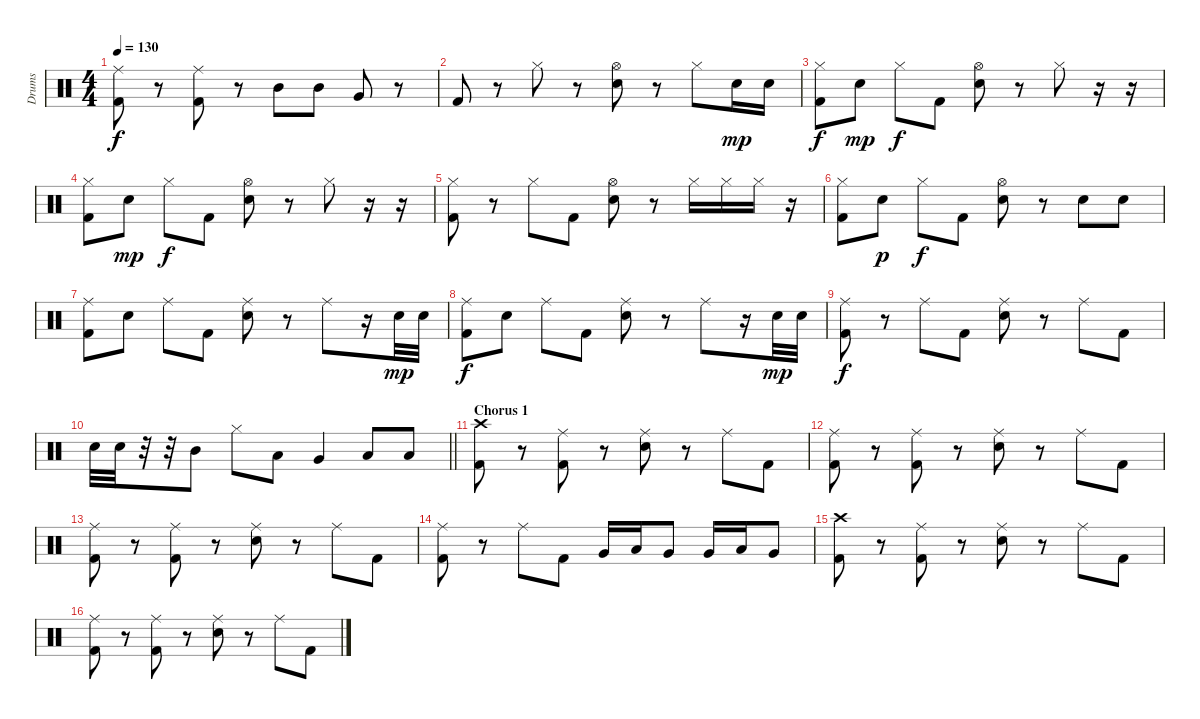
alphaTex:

\track ("Drums" "Drums") {instrument percussion}
\staff {score}
\articulation defaults
\ts (4 4)
\tempo 130
\clef neutral
\ks c
("Ride (middle)" "Kick (hit) 2").8{dy f} r.8 ("Ride (middle)" "Kick (hit) 2").8 r.8 "Mid Tom (hit)".8 "Mid Tom (hit)".8 "Very Low Tom (hit)".8 r.8 |
"Kick (hit) 2".8 r.8 "Hi-Hat (closed)".8 r.8 ("Hi-Hat (open)" "Snare (hit) 2").8 r.8 "Hi-Hat (closed)".8 "Snare (hit) 2".16{dy mp} "Snare (hit) 2".16 |
("Hi-Hat (closed)" "Kick (hit) 2").8{dy f} "Snare (hit) 2".8{dy mp} "Hi-Hat (closed)".8{dy f} "Kick (hit) 2".8 ("Hi-Hat (open)" "Snare (hit) 2").8 r.8 "Hi-Hat (closed)".8 r.16 r.16 |
("Hi-Hat (closed)" "Kick (hit) 2").8 "Snare (hit) 2".8{dy mp} "Hi-Hat (closed)".8{dy f} "Kick (hit) 2".8 ("Hi-Hat (open)" "Snare (hit) 2").8 r.8 "Hi-Hat (closed)".8 r.16 r.16 |
("Hi-Hat (closed)" "Kick (hit) 2").8 r.8 "Hi-Hat (closed)".8 "Kick (hit) 2".8 ("Hi-Hat (open)" "Snare (hit) 2").8 r.8 "Hi-Hat (closed)".16 "Hi-Hat (closed)".16 "Hi-Hat (closed)".16 r.16 |
("Hi-Hat (closed)" "Kick (hit) 2").8 "Snare (hit) 2".8{dy p} "Hi-Hat (closed)".8{dy f} "Kick (hit) 2".8 ("Hi-Hat (open)" "Snare (hit) 2").8 r.8 "Snare (hit) 2".8 "Snare (hit) 2".8 |
("Ride (middle)" "Kick (hit) 2").8 "Snare (hit) 2".8 "Ride (middle)".8 "Kick (hit) 2".8 ("Ride (middle)" "Snare (hit) 2").8 r.8 "Ride (middle)".8 r.16 "Snare (hit) 2".32{dy mp} "Snare (hit) 2".32 |
("Ride (middle)" "Kick (hit) 2").8{dy f} "Snare (hit) 2".8 "Ride (middle)".8 "Kick (hit) 2".8 ("Ride (middle)" "Snare (hit) 2").8 r.8 "Ride (middle)".8 r.16 "Snare (hit) 2".32{dy mp} "Snare (hit) 2".32 |
("Ride (middle)" "Kick (hit) 2").8{dy f} r.8 "Ride (middle)".8 "Kick (hit) 2".8 ("Ride (middle)" "Snare (hit) 2").8 r.8 "Ride (middle)".8 "Kick (hit) 2".8 |
\barLineRight lightlight "Snare (hit) 2".32{volume 16} "Snare (hit) 2".32
r.32 r.32 "Mid Tom (hit)".8 "Hi-Hat (closed)".8 "Low Tom (hit)".8 "Very Low Tom (hit)".4 "Low Floor Tom (hit)".8 "Low Floor Tom (hit)".8 |
\section ("" "Chorus 1")
("Crash high (hit)" "Kick (hit) 2").8 r.8 ("Ride (middle)" "Kick (hit) 2").8 r.8 ("Ride (middle)" "Snare (hit) 2").8 r.8 "Ride (middle)".8 "Kick (hit) 2".8 |
("Ride (middle)" "Kick (hit) 2").8 r.8 ("Ride (middle)" "Kick (hit) 2").8 r.8 ("Ride (middle)" "Snare (hit) 2").8 r.8 "Ride (middle)".8 "Kick (hit) 2".8 |
("Ride (middle)" "Kick (hit) 2").8 r.8 ("Ride (middle)" "Kick (hit) 2").8 r.8 ("Ride (middle)" "Snare (hit) 2").8 r.8 "Ride (middle)".8 "Kick (hit) 2".8 |
("Ride (middle)" "Kick (hit) 2").8 r.8 "Ride (middle)".8 "Kick (hit) 2".8 "Very Low Tom (hit)".16 "Low Floor Tom (hit)".16 "Very Low Tom (hit)".8 "Very Low Tom (hit)".16 "Low Floor Tom (hit)".16 "Very Low Tom (hit)".8 |
("Crash high (hit)" "Kick (hit) 2").8 r.8 ("Ride (middle)" "Kick (hit) 2").8 r.8 ("Ride (middle)" "Snare (hit) 2").8 r.8 "Ride (middle)".8 "Kick (hit) 2".8 |
("Ride (middle)" "Kick (hit) 2").8 r.8 ("Ride (middle)" "Kick (hit) 2").8 r.8 ("Ride (middle)" "Snare (hit) 2").8 r.8 "Ride (middle)".8 "Kick (hit) 2".8
